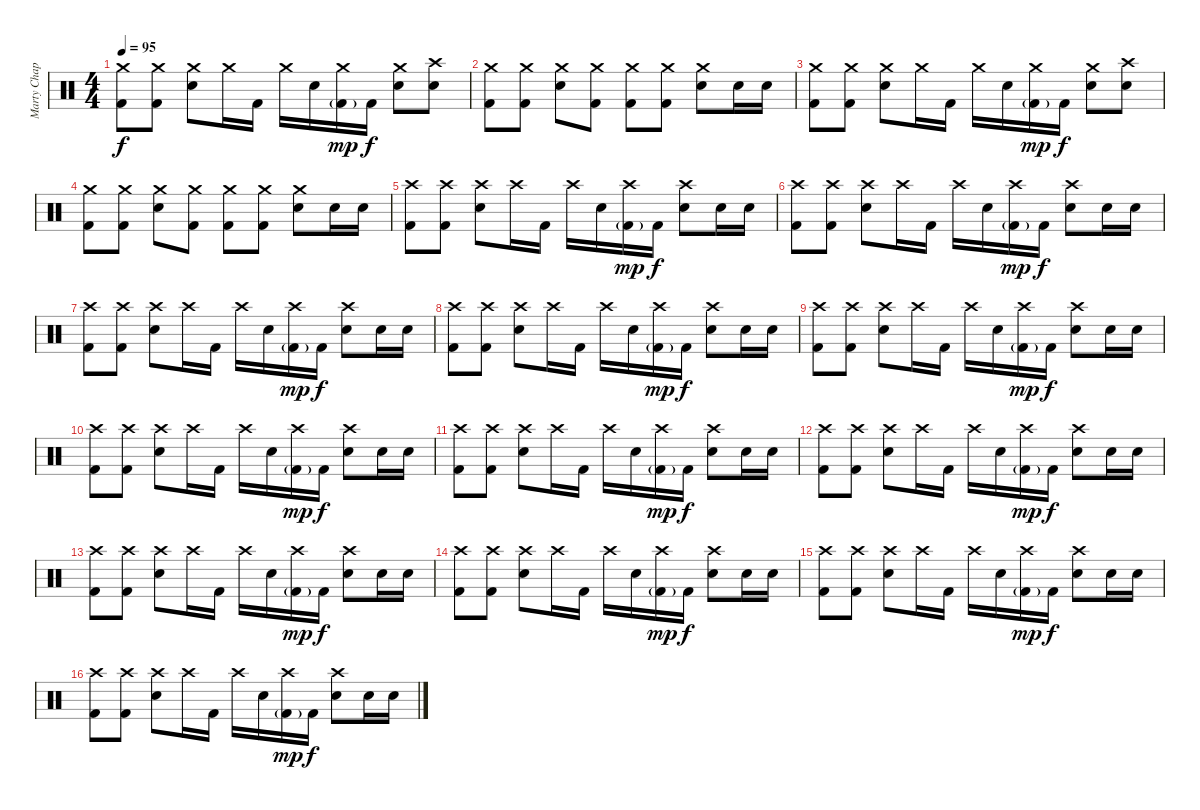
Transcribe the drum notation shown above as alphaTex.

\track ("Marty Chapman (Drums)" "Marty Chap") {instrument percussion}
\staff {score}
\articulation defaults
\ts (4 4)
\tempo 95
\clef neutral
\ks c
("Crash medium (hit)" "Kick (hit) 2").8{dy f} ("Crash medium (hit)" "Kick (hit) 2").8 ("Crash medium (hit)" "Electric Snare (hit)").8 "Crash medium (hit)".16 "Kick (hit) 2".16 "Crash medium (hit)".16 "Electric Snare (hit)".16 ("Crash medium (hit)" "Kick (hit) 2"{g}).16{dy mp} "Kick (hit) 2".16{dy f} ("Crash medium (hit)" "Electric Snare (hit)").8 ("Crash high (hit)" "Electric Snare (hit)").8 |
("Crash medium (hit)" "Kick (hit) 2").8 ("Crash medium (hit)" "Kick (hit) 2").8 ("Crash medium (hit)" "Electric Snare (hit)").8 ("Crash medium (hit)" "Kick (hit) 2").8 ("Crash medium (hit)" "Kick (hit) 2").8 ("Crash medium (hit)" "Kick (hit) 2").8 ("Crash medium (hit)" "Electric Snare (hit)").8 "Electric Snare (hit)".16 "Electric Snare (hit)".16 |
("Crash medium (hit)" "Kick (hit) 2").8 ("Crash medium (hit)" "Kick (hit) 2").8 ("Crash medium (hit)" "Electric Snare (hit)").8 "Crash medium (hit)".16 "Kick (hit) 2".16 "Crash medium (hit)".16 "Electric Snare (hit)".16 ("Crash medium (hit)" "Kick (hit) 2"{g}).16{dy mp} "Kick (hit) 2".16{dy f} ("Crash medium (hit)" "Electric Snare (hit)").8 ("Crash high (hit)" "Electric Snare (hit)").8 |
("Crash medium (hit)" "Kick (hit) 2").8 ("Crash medium (hit)" "Kick (hit) 2").8 ("Crash medium (hit)" "Electric Snare (hit)").8 ("Crash medium (hit)" "Kick (hit) 2").8 ("Crash medium (hit)" "Kick (hit) 2").8 ("Crash medium (hit)" "Kick (hit) 2").8 ("Crash medium (hit)" "Electric Snare (hit)").8 "Electric Snare (hit)".16 "Electric Snare (hit)".16 |
("Crash high (hit)" "Kick (hit) 2").8 ("Crash high (hit)" "Kick (hit) 2").8 ("Crash high (hit)" "Electric Snare (hit)").8 "Crash high (hit)".16 "Kick (hit) 2".16 "Crash high (hit)".16 "Electric Snare (hit)".16 ("Crash high (hit)" "Kick (hit) 2"{g}).16{dy mp} "Kick (hit) 2".16{dy f} ("Crash high (hit)" "Electric Snare (hit)").8 "Electric Snare (hit)".16 "Electric Snare (hit)".16 |
("Crash high (hit)" "Kick (hit) 2").8 ("Crash high (hit)" "Kick (hit) 2").8 ("Crash high (hit)" "Electric Snare (hit)").8 "Crash high (hit)".16 "Kick (hit) 2".16 "Crash high (hit)".16 "Electric Snare (hit)".16 ("Crash high (hit)" "Kick (hit) 2"{g}).16{dy mp} "Kick (hit) 2".16{dy f} ("Crash high (hit)" "Electric Snare (hit)").8 "Electric Snare (hit)".16 "Electric Snare (hit)".16 |
("Crash high (hit)" "Kick (hit) 2").8 ("Crash high (hit)" "Kick (hit) 2").8 ("Crash high (hit)" "Electric Snare (hit)").8 "Crash high (hit)".16 "Kick (hit) 2".16 "Crash high (hit)".16 "Electric Snare (hit)".16 ("Crash high (hit)" "Kick (hit) 2"{g}).16{dy mp} "Kick (hit) 2".16{dy f} ("Crash high (hit)" "Electric Snare (hit)").8 "Electric Snare (hit)".16 "Electric Snare (hit)".16 |
("Crash high (hit)" "Kick (hit) 2").8 ("Crash high (hit)" "Kick (hit) 2").8 ("Crash high (hit)" "Electric Snare (hit)").8 "Crash high (hit)".16 "Kick (hit) 2".16 "Crash high (hit)".16 "Electric Snare (hit)".16 ("Crash high (hit)" "Kick (hit) 2"{g}).16{dy mp} "Kick (hit) 2".16{dy f} ("Crash high (hit)" "Electric Snare (hit)").8 "Electric Snare (hit)".16 "Electric Snare (hit)".16 |
("Crash high (hit)" "Kick (hit) 2").8 ("Crash high (hit)" "Kick (hit) 2").8 ("Crash high (hit)" "Electric Snare (hit)").8 "Crash high (hit)".16 "Kick (hit) 2".16 "Crash high (hit)".16 "Electric Snare (hit)".16 ("Crash high (hit)" "Kick (hit) 2"{g}).16{dy mp} "Kick (hit) 2".16{dy f} ("Crash high (hit)" "Electric Snare (hit)").8 "Electric Snare (hit)".16 "Electric Snare (hit)".16 |
("Crash high (hit)" "Kick (hit) 2").8 ("Crash high (hit)" "Kick (hit) 2").8 ("Crash high (hit)" "Electric Snare (hit)").8 "Crash high (hit)".16 "Kick (hit) 2".16 "Crash high (hit)".16 "Electric Snare (hit)".16 ("Crash high (hit)" "Kick (hit) 2"{g}).16{dy mp} "Kick (hit) 2".16{dy f} ("Crash high (hit)" "Electric Snare (hit)").8 "Electric Snare (hit)".16 "Electric Snare (hit)".16 |
("Crash high (hit)" "Kick (hit) 2").8 ("Crash high (hit)" "Kick (hit) 2").8 ("Crash high (hit)" "Electric Snare (hit)").8 "Crash high (hit)".16 "Kick (hit) 2".16 "Crash high (hit)".16 "Electric Snare (hit)".16 ("Crash high (hit)" "Kick (hit) 2"{g}).16{dy mp} "Kick (hit) 2".16{dy f} ("Crash high (hit)" "Electric Snare (hit)").8 "Electric Snare (hit)".16 "Electric Snare (hit)".16 |
("Crash high (hit)" "Kick (hit) 2").8 ("Crash high (hit)" "Kick (hit) 2").8 ("Crash high (hit)" "Electric Snare (hit)").8 "Crash high (hit)".16 "Kick (hit) 2".16 "Crash high (hit)".16 "Electric Snare (hit)".16 ("Crash high (hit)" "Kick (hit) 2"{g}).16{dy mp} "Kick (hit) 2".16{dy f} ("Crash high (hit)" "Electric Snare (hit)").8 "Electric Snare (hit)".16 "Electric Snare (hit)".16 |
("Crash high (hit)" "Kick (hit) 2").8 ("Crash high (hit)" "Kick (hit) 2").8 ("Crash high (hit)" "Electric Snare (hit)").8 "Crash high (hit)".16 "Kick (hit) 2".16 "Crash high (hit)".16 "Electric Snare (hit)".16 ("Crash high (hit)" "Kick (hit) 2"{g}).16{dy mp} "Kick (hit) 2".16{dy f} ("Crash high (hit)" "Electric Snare (hit)").8 "Electric Snare (hit)".16 "Electric Snare (hit)".16 |
("Crash high (hit)" "Kick (hit) 2").8 ("Crash high (hit)" "Kick (hit) 2").8 ("Crash high (hit)" "Electric Snare (hit)").8 "Crash high (hit)".16 "Kick (hit) 2".16 "Crash high (hit)".16 "Electric Snare (hit)".16 ("Crash high (hit)" "Kick (hit) 2"{g}).16{dy mp} "Kick (hit) 2".16{dy f} ("Crash high (hit)" "Electric Snare (hit)").8 "Electric Snare (hit)".16 "Electric Snare (hit)".16 |
("Crash high (hit)" "Kick (hit) 2").8 ("Crash high (hit)" "Kick (hit) 2").8 ("Crash high (hit)" "Electric Snare (hit)").8 "Crash high (hit)".16 "Kick (hit) 2".16 "Crash high (hit)".16 "Electric Snare (hit)".16 ("Crash high (hit)" "Kick (hit) 2"{g}).16{dy mp} "Kick (hit) 2".16{dy f} ("Crash high (hit)" "Electric Snare (hit)").8 "Electric Snare (hit)".16 "Electric Snare (hit)".16 |
("Crash high (hit)" "Kick (hit) 2").8 ("Crash high (hit)" "Kick (hit) 2").8 ("Crash high (hit)" "Electric Snare (hit)").8 "Crash high (hit)".16 "Kick (hit) 2".16 "Crash high (hit)".16 "Electric Snare (hit)".16 ("Crash high (hit)" "Kick (hit) 2"{g}).16{dy mp} "Kick (hit) 2".16{dy f} ("Crash high (hit)" "Electric Snare (hit)").8 "Electric Snare (hit)".16 "Electric Snare (hit)".16
